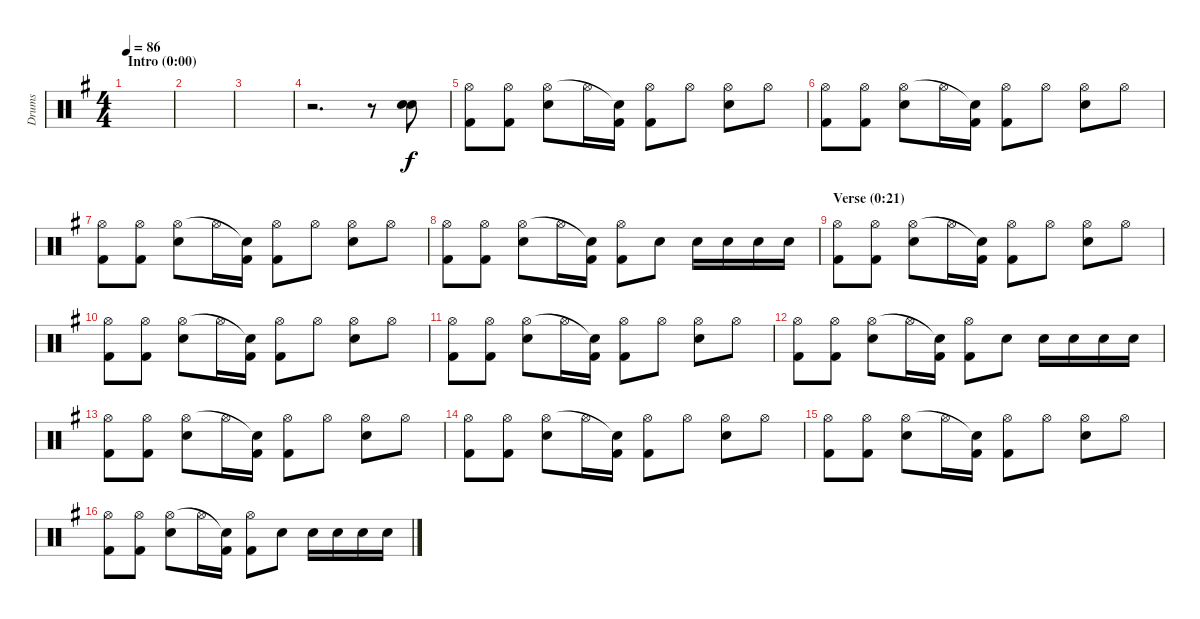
\track ("Drums" "Drums") {instrument percussion}
\staff {score}
\articulation defaults
\ts (4 4)
\section ("" "Intro (0:00)")
\tempo 86
\clef neutral
\ks eminor
|
|
|
r.2{d} r.8 ("Electric Snare (hit)" "Electric Snare (hit)").8 |
("Kick (hit) 2" "Hi-Hat (open)").8 ("Kick (hit) 2" "Hi-Hat (open)").8 ("Electric Snare (hit)" "Hi-Hat (open)").8 "Hi-Hat (open)".16 ("Kick (hit) 2" "Snare (hit)"{t}).16 ("Kick (hit) 2" "Hi-Hat (open)").8 "Hi-Hat (open)".8 ("Electric Snare (hit)" "Hi-Hat (open)").8 "Hi-Hat (open)".8 |
("Kick (hit) 2" "Hi-Hat (open)").8 ("Kick (hit) 2" "Hi-Hat (open)").8 ("Electric Snare (hit)" "Hi-Hat (open)").8 "Hi-Hat (open)".16 ("Kick (hit) 2" "Snare (hit)"{t}).16 ("Kick (hit) 2" "Hi-Hat (open)").8 "Hi-Hat (open)".8 ("Electric Snare (hit)" "Hi-Hat (open)").8 "Hi-Hat (open)".8 |
("Kick (hit) 2" "Hi-Hat (open)").8 ("Kick (hit) 2" "Hi-Hat (open)").8 ("Electric Snare (hit)" "Hi-Hat (open)").8 "Hi-Hat (open)".16 ("Kick (hit) 2" "Snare (hit)"{t}).16 ("Kick (hit) 2" "Hi-Hat (open)").8 "Hi-Hat (open)".8 ("Electric Snare (hit)" "Hi-Hat (open)").8 "Hi-Hat (open)".8 |
("Kick (hit) 2" "Hi-Hat (open)").8 ("Kick (hit) 2" "Hi-Hat (open)").8 ("Electric Snare (hit)" "Hi-Hat (open)").8 "Hi-Hat (open)".16 ("Kick (hit) 2" "Snare (hit)"{t}).16 ("Kick (hit) 2" "Hi-Hat (open)").8 "Electric Snare (hit)".8 "Electric Snare (hit)".16 "Electric Snare (hit)".16 "Electric Snare (hit)".16 "Electric Snare (hit)".16 |
\section ("" "Verse (0:21)")
("Kick (hit) 2" "Hi-Hat (open)").8 ("Kick (hit) 2" "Hi-Hat (open)").8 ("Electric Snare (hit)" "Hi-Hat (open)").8 "Hi-Hat (open)".16 ("Kick (hit) 2" "Snare (hit)"{t}).16 ("Kick (hit) 2" "Hi-Hat (open)").8 "Hi-Hat (open)".8 ("Electric Snare (hit)" "Hi-Hat (open)").8 "Hi-Hat (open)".8 |
("Kick (hit) 2" "Hi-Hat (open)").8 ("Kick (hit) 2" "Hi-Hat (open)").8 ("Electric Snare (hit)" "Hi-Hat (open)").8 "Hi-Hat (open)".16 ("Kick (hit) 2" "Snare (hit)"{t}).16 ("Kick (hit) 2" "Hi-Hat (open)").8 "Hi-Hat (open)".8 ("Electric Snare (hit)" "Hi-Hat (open)").8 "Hi-Hat (open)".8 |
("Kick (hit) 2" "Hi-Hat (open)").8 ("Kick (hit) 2" "Hi-Hat (open)").8 ("Electric Snare (hit)" "Hi-Hat (open)").8 "Hi-Hat (open)".16 ("Kick (hit) 2" "Snare (hit)"{t}).16 ("Kick (hit) 2" "Hi-Hat (open)").8 "Hi-Hat (open)".8 ("Electric Snare (hit)" "Hi-Hat (open)").8 "Hi-Hat (open)".8 |
("Kick (hit) 2" "Hi-Hat (open)").8 ("Kick (hit) 2" "Hi-Hat (open)").8 ("Electric Snare (hit)" "Hi-Hat (open)").8 "Hi-Hat (open)".16 ("Kick (hit) 2" "Snare (hit)"{t}).16 ("Kick (hit) 2" "Hi-Hat (open)").8 "Electric Snare (hit)".8 "Electric Snare (hit)".16 "Electric Snare (hit)".16 "Electric Snare (hit)".16 "Electric Snare (hit)".16 |
("Kick (hit) 2" "Hi-Hat (open)").8 ("Kick (hit) 2" "Hi-Hat (open)").8 ("Electric Snare (hit)" "Hi-Hat (open)").8 "Hi-Hat (open)".16 ("Kick (hit) 2" "Snare (hit)"{t}).16 ("Kick (hit) 2" "Hi-Hat (open)").8 "Hi-Hat (open)".8 ("Electric Snare (hit)" "Hi-Hat (open)").8 "Hi-Hat (open)".8 |
("Kick (hit) 2" "Hi-Hat (open)").8 ("Kick (hit) 2" "Hi-Hat (open)").8 ("Electric Snare (hit)" "Hi-Hat (open)").8 "Hi-Hat (open)".16 ("Kick (hit) 2" "Snare (hit)"{t}).16 ("Kick (hit) 2" "Hi-Hat (open)").8 "Hi-Hat (open)".8 ("Electric Snare (hit)" "Hi-Hat (open)").8 "Hi-Hat (open)".8 |
("Kick (hit) 2" "Hi-Hat (open)").8 ("Kick (hit) 2" "Hi-Hat (open)").8 ("Electric Snare (hit)" "Hi-Hat (open)").8 "Hi-Hat (open)".16 ("Kick (hit) 2" "Snare (hit)"{t}).16 ("Kick (hit) 2" "Hi-Hat (open)").8 "Hi-Hat (open)".8 ("Electric Snare (hit)" "Hi-Hat (open)").8 "Hi-Hat (open)".8 |
("Kick (hit) 2" "Hi-Hat (open)").8 ("Kick (hit) 2" "Hi-Hat (open)").8 ("Electric Snare (hit)" "Hi-Hat (open)").8 "Hi-Hat (open)".16 ("Kick (hit) 2" "Snare (hit)"{t}).16 ("Kick (hit) 2" "Hi-Hat (open)").8 "Electric Snare (hit)".8 "Electric Snare (hit)".16 "Electric Snare (hit)".16 "Electric Snare (hit)".16 "Electric Snare (hit)".16
